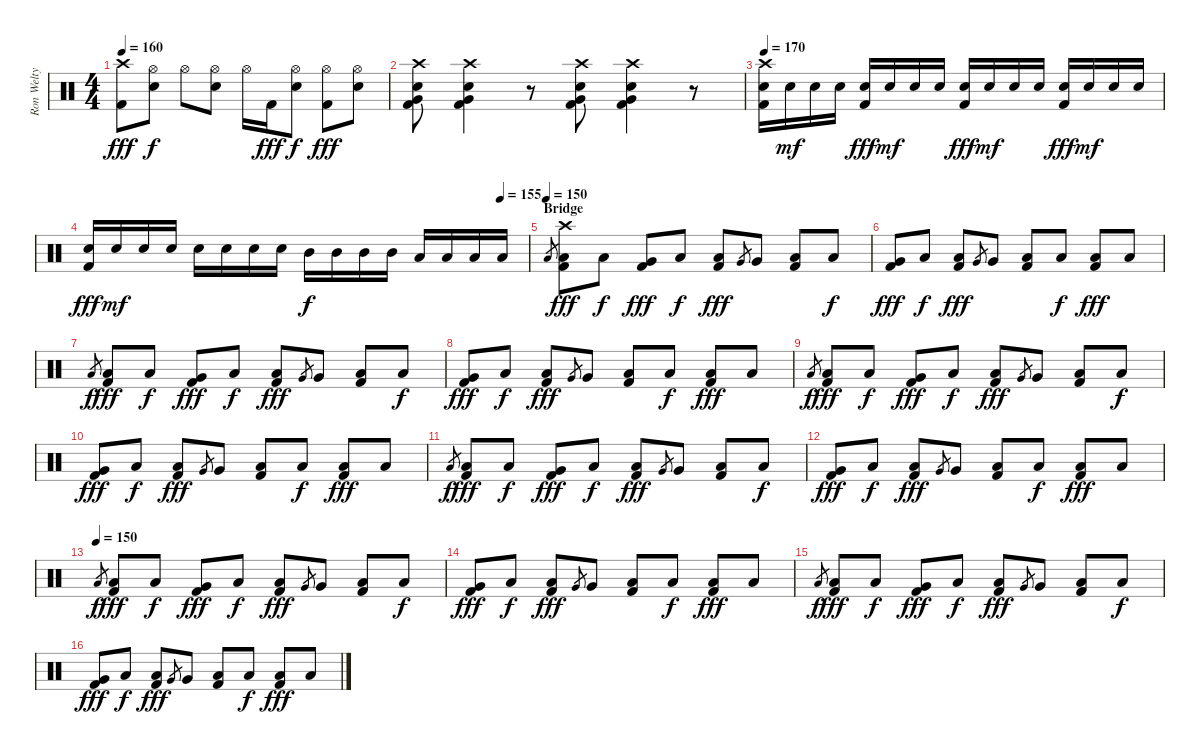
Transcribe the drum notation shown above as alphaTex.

\track ("Ron Welty" "Ron Welty") {instrument percussion}
\staff {score}
\articulation defaults
\ts (4 4)
\tempo 160
\clef neutral
\ks c
("Crash high (hit)" "Kick (hit) 2").8{dy fff} ("Hi-Hat (open)" "Snare (hit) 2").8{dy f} "Hi-Hat (open)".8 ("Hi-Hat (open)" "Snare (hit) 2").8 "Hi-Hat (open)".16 "Kick (hit) 2".16{dy fff} ("Hi-Hat (open)" "Snare (hit) 2").8{dy f} ("Hi-Hat (open)" "Kick (hit) 2").8{dy fff} ("Hi-Hat (open)" "Snare (hit) 2").8 |
("Crash high (hit)" "Very Low Tom (hit)" "Snare (hit) 2" "Kick (hit) 2").8 ("Crash high (hit)" "Very Low Tom (hit)" "Snare (hit) 2" "Kick (hit) 2").4 r.8 ("Crash high (hit)" "Very Low Tom (hit)" "Snare (hit) 2" "Kick (hit) 2").8 ("Crash high (hit)" "Very Low Tom (hit)" "Snare (hit) 2" "Kick (hit) 2").4 r.8 |
\tempo 170
("Crash high (hit)" "Snare (hit) 2" "Kick (hit) 2").16 "Snare (hit) 2".16{dy mf} "Snare (hit) 2".16 "Snare (hit) 2".16 ("Snare (hit) 2" "Kick (hit) 2").16{dy fff} "Snare (hit) 2".16{dy mf} "Snare (hit) 2".16 "Snare (hit) 2".16 ("Snare (hit) 2" "Kick (hit) 2").16{dy fff} "Snare (hit) 2".16{dy mf} "Snare (hit) 2".16 "Snare (hit) 2".16 ("Snare (hit) 2" "Kick (hit) 2").16{dy fff} "Snare (hit) 2".16{dy mf} "Snare (hit) 2".16 "Snare (hit) 2".16 |
\tempo (155 0.9375)
("Snare (hit) 2" "Kick (hit) 2").16{dy fff} "Snare (hit) 2".16{dy mf} "Snare (hit) 2".16 "Snare (hit) 2".16 "Snare (hit) 2".16 "Snare (hit) 2".16 "Snare (hit) 2".16 "Snare (hit) 2".16 "Mid Tom (hit)".16{dy f} "Mid Tom (hit)".16 "Mid Tom (hit)".16 "Mid Tom (hit)".16 "Low Tom (hit)".16 "Low Tom (hit)".16 "Low Tom (hit)".16 "Low Tom (hit)".16 |
\section ("" "Bridge")
\tempo (150)
"Low Floor Tom (hit)".8{gr} ("Crash high (hit)" "Low Floor Tom (hit)" "Kick (hit) 2").8{dy fff} "Low Floor Tom (hit)".8{dy f} ("Very Low Tom (hit)" "Kick (hit) 2").8{dy fff} "Low Floor Tom (hit)".8{dy f} ("Low Floor Tom (hit)" "Kick (hit) 2").8{dy fff} "Very Low Tom (hit)".8{gr} "Very Low Tom (hit)".8 ("Low Floor Tom (hit)" "Kick (hit) 2").8 "Low Floor Tom (hit)".8{dy f} |
("Very Low Tom (hit)" "Kick (hit) 2").8{dy fff} "Low Floor Tom (hit)".8{dy f} ("Low Floor Tom (hit)" "Kick (hit) 2").8{dy fff} "Very Low Tom (hit)".8{gr} "Very Low Tom (hit)".8 ("Low Floor Tom (hit)" "Kick (hit) 2").8 "Low Floor Tom (hit)".8{dy f} ("Low Floor Tom (hit)" "Kick (hit) 2").8{dy fff} "Low Floor Tom (hit)".8 |
"Low Floor Tom (hit)".8{gr dy f} ("Low Floor Tom (hit)" "Kick (hit) 2").8{dy fff} "Low Floor Tom (hit)".8{dy f} ("Very Low Tom (hit)" "Kick (hit) 2").8{dy fff} "Low Floor Tom (hit)".8{dy f} ("Low Floor Tom (hit)" "Kick (hit) 2").8{dy fff} "Very Low Tom (hit)".8{gr} "Very Low Tom (hit)".8 ("Low Floor Tom (hit)" "Kick (hit) 2").8 "Low Floor Tom (hit)".8{dy f} |
("Very Low Tom (hit)" "Kick (hit) 2").8{dy fff} "Low Floor Tom (hit)".8{dy f} ("Low Floor Tom (hit)" "Kick (hit) 2").8{dy fff} "Very Low Tom (hit)".8{gr} "Very Low Tom (hit)".8 ("Low Floor Tom (hit)" "Kick (hit) 2").8 "Low Floor Tom (hit)".8{dy f} ("Low Floor Tom (hit)" "Kick (hit) 2").8{dy fff} "Low Floor Tom (hit)".8 |
"Low Floor Tom (hit)".8{gr dy f} ("Low Floor Tom (hit)" "Kick (hit) 2").8{dy fff} "Low Floor Tom (hit)".8{dy f} ("Very Low Tom (hit)" "Kick (hit) 2").8{dy fff} "Low Floor Tom (hit)".8{dy f} ("Low Floor Tom (hit)" "Kick (hit) 2").8{dy fff} "Very Low Tom (hit)".8{gr} "Very Low Tom (hit)".8 ("Low Floor Tom (hit)" "Kick (hit) 2").8 "Low Floor Tom (hit)".8{dy f} |
("Very Low Tom (hit)" "Kick (hit) 2").8{dy fff} "Low Floor Tom (hit)".8{dy f} ("Low Floor Tom (hit)" "Kick (hit) 2").8{dy fff} "Very Low Tom (hit)".8{gr} "Very Low Tom (hit)".8 ("Low Floor Tom (hit)" "Kick (hit) 2").8 "Low Floor Tom (hit)".8{dy f} ("Low Floor Tom (hit)" "Kick (hit) 2").8{dy fff} "Low Floor Tom (hit)".8 |
"Low Floor Tom (hit)".8{gr dy f} ("Low Floor Tom (hit)" "Kick (hit) 2").8{dy fff} "Low Floor Tom (hit)".8{dy f} ("Very Low Tom (hit)" "Kick (hit) 2").8{dy fff} "Low Floor Tom (hit)".8{dy f} ("Low Floor Tom (hit)" "Kick (hit) 2").8{dy fff} "Very Low Tom (hit)".8{gr} "Very Low Tom (hit)".8 ("Low Floor Tom (hit)" "Kick (hit) 2").8 "Low Floor Tom (hit)".8{dy f} |
("Very Low Tom (hit)" "Kick (hit) 2").8{dy fff} "Low Floor Tom (hit)".8{dy f} ("Low Floor Tom (hit)" "Kick (hit) 2").8{dy fff} "Very Low Tom (hit)".8{gr} "Very Low Tom (hit)".8 ("Low Floor Tom (hit)" "Kick (hit) 2").8 "Low Floor Tom (hit)".8{dy f} ("Low Floor Tom (hit)" "Kick (hit) 2").8{dy fff} "Low Floor Tom (hit)".8 |
\tempo (150)
"Low Floor Tom (hit)".8{gr dy f} ("Low Floor Tom (hit)" "Kick (hit) 2").8{dy fff} "Low Floor Tom (hit)".8{dy f} ("Very Low Tom (hit)" "Kick (hit) 2").8{dy fff} "Low Floor Tom (hit)".8{dy f} ("Low Floor Tom (hit)" "Kick (hit) 2").8{dy fff} "Very Low Tom (hit)".8{gr} "Very Low Tom (hit)".8 ("Low Floor Tom (hit)" "Kick (hit) 2").8 "Low Floor Tom (hit)".8{dy f} |
("Very Low Tom (hit)" "Kick (hit) 2").8{dy fff} "Low Floor Tom (hit)".8{dy f} ("Low Floor Tom (hit)" "Kick (hit) 2").8{dy fff} "Very Low Tom (hit)".8{gr} "Very Low Tom (hit)".8 ("Low Floor Tom (hit)" "Kick (hit) 2").8 "Low Floor Tom (hit)".8{dy f} ("Low Floor Tom (hit)" "Kick (hit) 2").8{dy fff} "Low Floor Tom (hit)".8 |
"Low Floor Tom (hit)".8{gr dy f} ("Low Floor Tom (hit)" "Kick (hit) 2").8{dy fff} "Low Floor Tom (hit)".8{dy f} ("Very Low Tom (hit)" "Kick (hit) 2").8{dy fff} "Low Floor Tom (hit)".8{dy f} ("Low Floor Tom (hit)" "Kick (hit) 2").8{dy fff} "Very Low Tom (hit)".8{gr} "Very Low Tom (hit)".8 ("Low Floor Tom (hit)" "Kick (hit) 2").8 "Low Floor Tom (hit)".8{dy f} |
("Very Low Tom (hit)" "Kick (hit) 2").8{dy fff} "Low Floor Tom (hit)".8{dy f} ("Low Floor Tom (hit)" "Kick (hit) 2").8{dy fff} "Very Low Tom (hit)".8{gr} "Very Low Tom (hit)".8 ("Low Floor Tom (hit)" "Kick (hit) 2").8 "Low Floor Tom (hit)".8{dy f} ("Low Floor Tom (hit)" "Kick (hit) 2").8{dy fff} "Low Floor Tom (hit)".8
